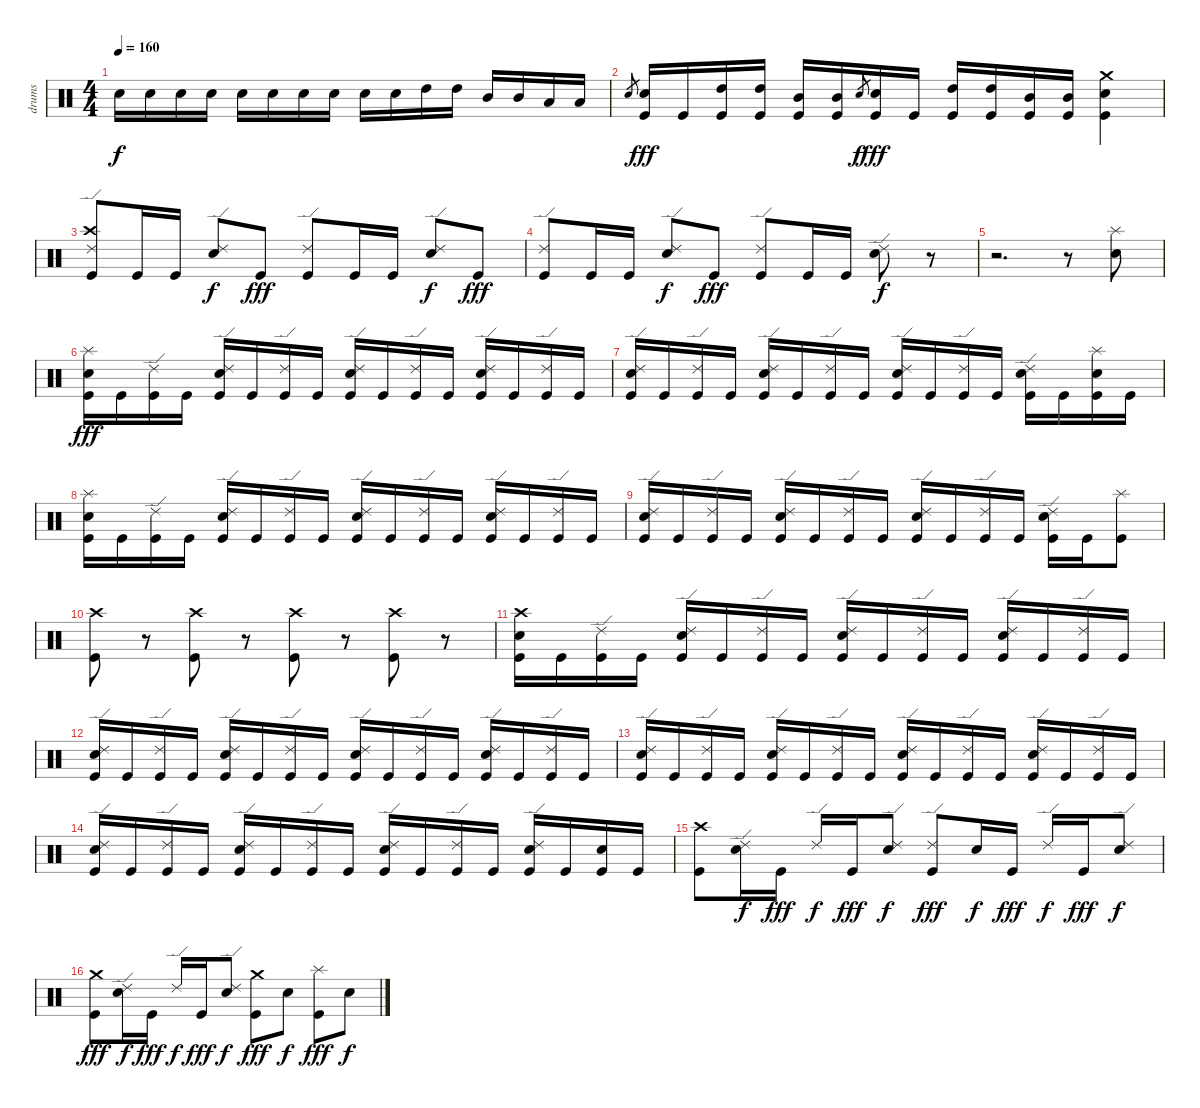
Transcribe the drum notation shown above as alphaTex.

\track ("drums" "drums") {instrument percussion}
\staff {score}
\articulation defaults
\ts (4 4)
\tempo 170
\tempo 160
\clef neutral
\ks c "Snare (hit) 2".16{dy f} "Snare (hit) 2".16 "Snare (hit) 2".16 "Snare (hit) 2".16 "Snare (hit) 2".16 "Snare (hit) 2".16 "Snare (hit) 2".16 "Snare (hit) 2".16 "Snare (hit) 2".16 "Snare (hit) 2".16 "High Tom (hit)".16 "High Tom (hit)".16 "Mid Tom (hit)".16 "Mid Tom (hit)".16 "Low Tom (hit)".16 "Low Tom (hit)".16
|
"Snare (hit) 2".8{gr} ("Snare (hit) 2" "Kick (hit)").16{dy fff} "Kick (hit)".16 ("High Tom (hit)" "Kick (hit)").16 ("High Tom (hit)" "Kick (hit)").16 ("Mid Tom (hit)" "Kick (hit)").16 ("Mid Tom (hit)" "Kick (hit)").16 "Snare (hit) 2".8{gr dy f} ("Snare (hit) 2" "Kick (hit)").16{dy fff} "Kick (hit)".16 ("High Tom (hit)" "Kick (hit)").16 ("High Tom (hit)" "Kick (hit)").16 ("Mid Tom (hit)" "Kick (hit)").16 ("Mid Tom (hit)" "Kick (hit)").16 ("Crash medium (hit)" "Snare (hit) 2" "Kick (hit)").4 |
("Crash high (hit)" "Ride (edge) 2" "Kick (hit)").8 "Kick (hit)".16 "Kick (hit)".16 ("Ride (edge) 2" "Snare (hit) 2").8{dy f} "Kick (hit)".8{dy fff} ("Ride (edge) 2" "Kick (hit)").8 "Kick (hit)".16 "Kick (hit)".16 ("Ride (edge) 2" "Snare (hit) 2").8{dy f} "Kick (hit)".8{dy fff} |
("Ride (edge) 2" "Kick (hit)").8 "Kick (hit)".16 "Kick (hit)".16 ("Ride (edge) 2" "Snare (hit) 2").8{dy f} "Kick (hit)".8{dy fff} ("Ride (edge) 2" "Kick (hit)").8 "Kick (hit)".16 "Kick (hit)".16 ("Ride (edge) 2" "Snare (hit) 2").8{dy f} r.8 |
r.2{d} r.8 ("Splash (hit)" "Snare (hit) 2").8 |
("Splash (hit)" "Snare (hit) 2" "Kick (hit)").16{dy fff} "Kick (hit)".16 ("Ride (edge) 2" "Kick (hit)").16 "Kick (hit)".16 ("Ride (edge) 2" "Snare (hit) 2" "Kick (hit)").16 "Kick (hit)".16 ("Ride (edge) 2" "Kick (hit)").16 "Kick (hit)".16 ("Ride (edge) 2" "Snare (hit) 2" "Kick (hit)").16 "Kick (hit)".16 ("Ride (edge) 2" "Kick (hit)").16 "Kick (hit)".16 ("Ride (edge) 2" "Snare (hit) 2" "Kick (hit)").16 "Kick (hit)".16 ("Ride (edge) 2" "Kick (hit)").16 "Kick (hit)".16 |
("Ride (edge) 2" "Snare (hit) 2" "Kick (hit)").16 "Kick (hit)".16 ("Ride (edge) 2" "Kick (hit)").16 "Kick (hit)".16 ("Ride (edge) 2" "Snare (hit) 2" "Kick (hit)").16 "Kick (hit)".16 ("Ride (edge) 2" "Kick (hit)").16 "Kick (hit)".16 ("Ride (edge) 2" "Snare (hit) 2" "Kick (hit)").16 "Kick (hit)".16 ("Ride (edge) 2" "Kick (hit)").16 "Kick (hit)".16 ("Ride (edge) 2" "Snare (hit) 2" "Kick (hit)").16 "Kick (hit)".16 ("Splash (hit)" "Snare (hit) 2" "Kick (hit)").16 "Kick (hit)".16 |
("Splash (hit)" "Snare (hit) 2" "Kick (hit)").16 "Kick (hit)".16 ("Ride (edge) 2" "Kick (hit)").16 "Kick (hit)".16 ("Ride (edge) 2" "Snare (hit) 2" "Kick (hit)").16 "Kick (hit)".16 ("Ride (edge) 2" "Kick (hit)").16 "Kick (hit)".16 ("Ride (edge) 2" "Snare (hit) 2" "Kick (hit)").16 "Kick (hit)".16 ("Ride (edge) 2" "Kick (hit)").16 "Kick (hit)".16 ("Ride (edge) 2" "Snare (hit) 2" "Kick (hit)").16 "Kick (hit)".16 ("Ride (edge) 2" "Kick (hit)").16 "Kick (hit)".16 |
("Ride (edge) 2" "Snare (hit) 2" "Kick (hit)").16 "Kick (hit)".16 ("Ride (edge) 2" "Kick (hit)").16 "Kick (hit)".16 ("Ride (edge) 2" "Snare (hit) 2" "Kick (hit)").16 "Kick (hit)".16 ("Ride (edge) 2" "Kick (hit)").16 "Kick (hit)".16 ("Ride (edge) 2" "Snare (hit) 2" "Kick (hit)").16 "Kick (hit)".16 ("Ride (edge) 2" "Kick (hit)").16 "Kick (hit)".16 ("Ride (edge) 2" "Snare (hit) 2" "Kick (hit)").16 "Kick (hit)".16 ("Splash (hit)" "Kick (hit)").8 |
("Crash high (hit)" "Kick (hit)").8{volume 12} r.8{volume 0} ("Crash high (hit)" "Kick (hit)").8{volume 12} r.8{volume 0} ("Crash high (hit)" "Kick (hit)").8{volume 12} r.8{volume 0} ("Crash high (hit)" "Kick (hit)").8{volume 12} r.8{volume 0} |
("Crash high (hit)" "Snare (hit) 2" "Kick (hit)").16{volume 12} "Kick (hit)".16 ("Ride (edge) 2" "Kick (hit)").16 "Kick (hit)".16 ("Ride (edge) 2" "Snare (hit) 2" "Kick (hit)").16 "Kick (hit)".16 ("Ride (edge) 2" "Kick (hit)").16 "Kick (hit)".16 ("Ride (edge) 2" "Snare (hit) 2" "Kick (hit)").16 "Kick (hit)".16 ("Ride (edge) 2" "Kick (hit)").16 "Kick (hit)".16 ("Ride (edge) 2" "Snare (hit) 2" "Kick (hit)").16 "Kick (hit)".16 ("Ride (edge) 2" "Kick (hit)").16 "Kick (hit)".16 |
("Ride (edge) 2" "Snare (hit) 2" "Kick (hit)").16 "Kick (hit)".16 ("Ride (edge) 2" "Kick (hit)").16 "Kick (hit)".16 ("Ride (edge) 2" "Snare (hit) 2" "Kick (hit)").16 "Kick (hit)".16 ("Ride (edge) 2" "Kick (hit)").16 "Kick (hit)".16 ("Ride (edge) 2" "Snare (hit) 2" "Kick (hit)").16 "Kick (hit)".16 ("Ride (edge) 2" "Kick (hit)").16 "Kick (hit)".16 ("Ride (edge) 2" "Snare (hit) 2" "Kick (hit)").16 "Kick (hit)".16 ("Ride (edge) 2" "Kick (hit)").16 "Kick (hit)".16 |
("Ride (edge) 2" "Snare (hit) 2" "Kick (hit)").16 "Kick (hit)".16 ("Ride (edge) 2" "Kick (hit)").16 "Kick (hit)".16 ("Ride (edge) 2" "Snare (hit) 2" "Kick (hit)").16 "Kick (hit)".16 ("Ride (edge) 2" "Kick (hit)").16 "Kick (hit)".16 ("Ride (edge) 2" "Snare (hit) 2" "Kick (hit)").16 "Kick (hit)".16 ("Ride (edge) 2" "Kick (hit)").16 "Kick (hit)".16 ("Ride (edge) 2" "Snare (hit) 2" "Kick (hit)").16 "Kick (hit)".16 ("Ride (edge) 2" "Kick (hit)").16 "Kick (hit)".16 |
("Ride (edge) 2" "Snare (hit) 2" "Kick (hit)").16 "Kick (hit)".16 ("Ride (edge) 2" "Kick (hit)").16 "Kick (hit)".16 ("Ride (edge) 2" "Snare (hit) 2" "Kick (hit)").16 "Kick (hit)".16 ("Ride (edge) 2" "Kick (hit)").16 "Kick (hit)".16 ("Ride (edge) 2" "Snare (hit) 2" "Kick (hit)").16 "Kick (hit)".16 ("Ride (edge) 2" "Kick (hit)").16 "Kick (hit)".16 ("Ride (edge) 2" "Snare (hit) 2" "Kick (hit)").16 "Kick (hit)".16 ("Snare (hit) 2" "Kick (hit)").16 "Kick (hit)".16 |
("Crash high (hit)" "Kick (hit)").8 ("Ride (edge) 2" "Snare (hit) 2").16{dy f} "Kick (hit)".16{dy fff} "Ride (edge) 2".16{dy f} "Kick (hit)".16{dy fff} ("Ride (edge) 2" "Snare (hit) 2").8{dy f} ("Ride (edge) 2" "Kick (hit)").8{dy fff} "Snare (hit) 2".16{dy f} "Kick (hit)".16{dy fff} "Ride (edge) 2".16{dy f} "Kick (hit)".16{dy fff} ("Ride (edge) 2" "Snare (hit) 2").8{dy f} |
("Crash medium (hit)" "Kick (hit)").8{dy fff} ("Ride (edge) 2" "Snare (hit) 2").16{dy f} "Kick (hit)".16{dy fff} "Ride (edge) 2".16{dy f} "Kick (hit)".16{dy fff} ("Ride (edge) 2" "Snare (hit) 2").8{dy f} ("Crash medium (hit)" "Kick (hit)").8{dy fff} "Snare (hit) 2".8{dy f} ("Splash (hit)" "Kick (hit)").8{dy fff} "Snare (hit) 2".8{dy f}
